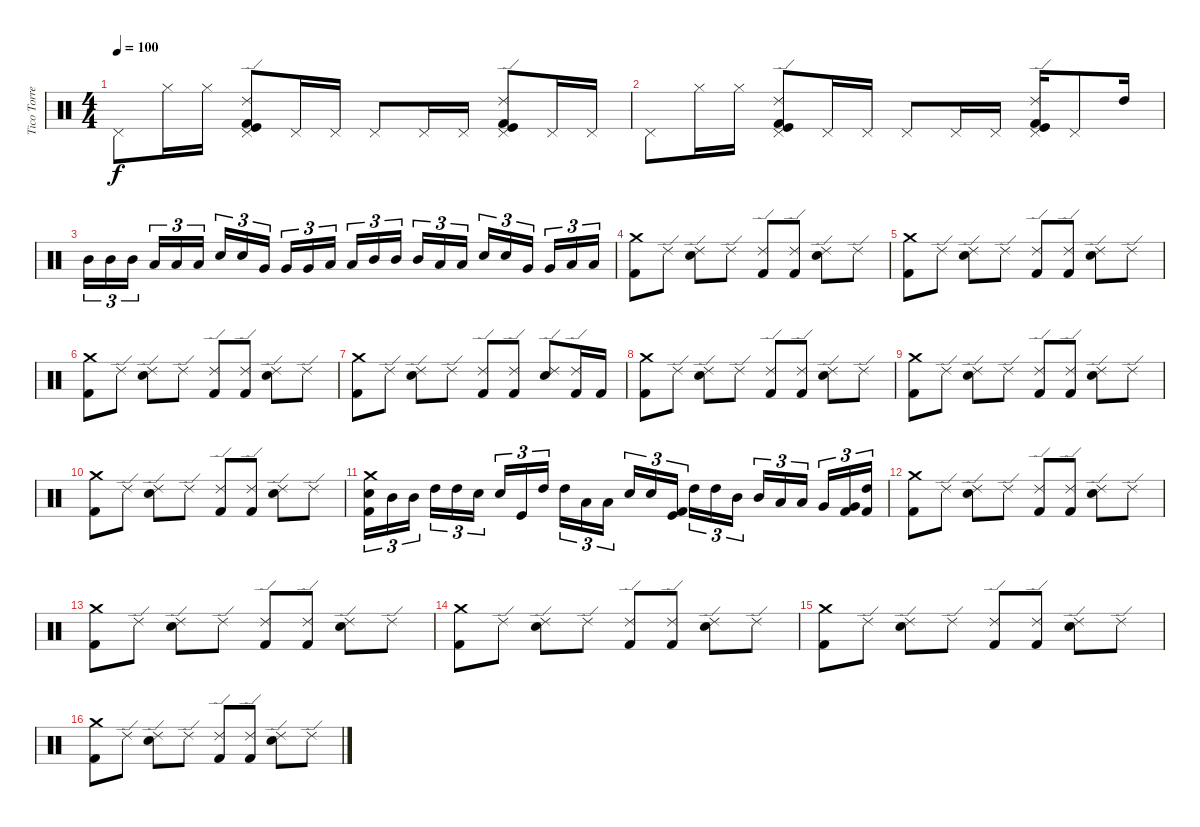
\track ("Tico Torres" "Tico Torre") {instrument percussion}
\staff {score}
\articulation defaults
\ts (4 4)
\tempo 100
\clef neutral
\ks c "Pedal Hi-Hat (hit)".8{dy f} "Hi-Hat (closed)".16 "Hi-Hat (closed)".16
("Ride (edge) 2" "Kick (hit)" "Pedal Hi-Hat (hit)" "Kick (hit) 2").8 "Pedal Hi-Hat (hit)".16 "Pedal Hi-Hat (hit)".16 "Pedal Hi-Hat (hit)".8 "Pedal Hi-Hat (hit)".16 "Pedal Hi-Hat (hit)".16 ("Ride (edge) 2" "Kick (hit)" "Pedal Hi-Hat (hit)" "Kick (hit) 2").8 "Pedal Hi-Hat (hit)".16 "Pedal Hi-Hat (hit)".16 |
"Pedal Hi-Hat (hit)".8 "Hi-Hat (closed)".16 "Hi-Hat (closed)".16 ("Ride (edge) 2" "Kick (hit)" "Pedal Hi-Hat (hit)" "Kick (hit) 2").8 "Pedal Hi-Hat (hit)".16 "Pedal Hi-Hat (hit)".16 "Pedal Hi-Hat (hit)".8 "Pedal Hi-Hat (hit)".16 "Pedal Hi-Hat (hit)".16 ("Ride (edge) 2" "Kick (hit)" "Pedal Hi-Hat (hit)" "Kick (hit) 2").16 "Pedal Hi-Hat (hit)".8 "High Tom (hit)".16 |
"Mid Tom (hit)".16{tu (3 2)} "Mid Tom (hit)".16{tu (3 2)} "Mid Tom (hit)".16{tu (3 2)} "Low Tom (hit)".16{tu (3 2)} "Low Tom (hit)".16{tu (3 2)} "Low Tom (hit)".16{tu (3 2)} "Electric Snare (hit)".16{tu (3 2)} "Electric Snare (hit)".16{tu (3 2)} "Very Low Tom (hit)".16{tu (3 2)} "Very Low Tom (hit)".16{tu (3 2)} "Very Low Tom (hit)".16{tu (3 2)} "Low Tom (hit)".16{tu (3 2)} "Low Tom (hit)".16{tu (3 2)} "Mid Tom (hit)".16{tu (3 2)} "Mid Tom (hit)".16{tu (3 2)} "Mid Tom (hit)".16{tu (3 2)} "Low Tom (hit)".16{tu (3 2)} "Low Tom (hit)".16{tu (3 2)} "Electric Snare (hit)".16{tu (3 2)} "Electric Snare (hit)".16{tu (3 2)} "Very Low Tom (hit)".16{tu (3 2)} "Very Low Tom (hit)".16{tu (3 2)} "Low Tom (hit)".16{tu (3 2)} "Low Tom (hit)".16{tu (3 2)} |
("Crash medium (hit)" "Kick (hit) 2").8 "Ride (edge) 2".8 ("Ride (edge) 2" "Snare (hit) 2").8 "Ride (edge) 2".8 ("Ride (edge) 2" "Kick (hit) 2").8 ("Ride (edge) 2" "Kick (hit) 2").8 ("Ride (edge) 2" "Snare (hit) 2").8 "Ride (edge) 2".8 |
("Crash medium (hit)" "Kick (hit) 2").8 "Ride (edge) 2".8 ("Ride (edge) 2" "Snare (hit) 2").8 "Ride (edge) 2".8 ("Ride (edge) 2" "Kick (hit) 2").8 ("Ride (edge) 2" "Kick (hit) 2").8 ("Ride (edge) 2" "Snare (hit) 2").8 "Ride (edge) 2".8 |
("Crash medium (hit)" "Kick (hit) 2").8 "Ride (edge) 2".8 ("Ride (edge) 2" "Snare (hit) 2").8 "Ride (edge) 2".8 ("Ride (edge) 2" "Kick (hit) 2").8 ("Ride (edge) 2" "Kick (hit) 2").8 ("Ride (edge) 2" "Snare (hit) 2").8 "Ride (edge) 2".8 |
("Crash medium (hit)" "Kick (hit) 2").8 "Ride (edge) 2".8 ("Ride (edge) 2" "Snare (hit) 2").8 "Ride (edge) 2".8 ("Ride (edge) 2" "Kick (hit) 2").8 ("Ride (edge) 2" "Kick (hit) 2").8 ("Ride (edge) 2" "Snare (hit) 2").8 ("Ride (edge) 2" "Kick (hit) 2").16 "Kick (hit) 2".16 |
("Crash medium (hit)" "Kick (hit) 2").8 "Ride (edge) 2".8 ("Ride (edge) 2" "Snare (hit) 2").8 "Ride (edge) 2".8 ("Ride (edge) 2" "Kick (hit) 2").8 ("Ride (edge) 2" "Kick (hit) 2").8 ("Ride (edge) 2" "Snare (hit) 2").8 "Ride (edge) 2".8 |
("Crash medium (hit)" "Kick (hit) 2").8 "Ride (edge) 2".8 ("Ride (edge) 2" "Snare (hit) 2").8 "Ride (edge) 2".8 ("Ride (edge) 2" "Kick (hit) 2").8 ("Ride (edge) 2" "Kick (hit) 2").8 ("Ride (edge) 2" "Snare (hit) 2").8 "Ride (edge) 2".8 |
("Crash medium (hit)" "Kick (hit) 2").8 "Ride (edge) 2".8 ("Ride (edge) 2" "Snare (hit) 2").8 "Ride (edge) 2".8 ("Ride (edge) 2" "Kick (hit) 2").8 ("Ride (edge) 2" "Kick (hit) 2").8 ("Ride (edge) 2" "Snare (hit) 2").8 "Ride (edge) 2".8 |
("Crash medium (hit)" "Kick (hit) 2" "Electric Snare (hit)").16{tu (3 2)} "Mid Tom (hit)".16{tu (3 2)} "Mid Tom (hit)".16{tu (3 2)} "High Tom (hit)".16{tu (3 2)} "High Tom (hit)".16{tu (3 2)} "Electric Snare (hit)".16{tu (3 2)} "Electric Snare (hit)".16{tu (3 2)} "Kick (hit)".16{tu (3 2)} "High Tom (hit)".16{tu (3 2)} "High Tom (hit)".16{tu (3 2)} "Low Tom (hit)".16{tu (3 2)} "Low Tom (hit)".16{tu (3 2)} "Electric Snare (hit)".16{tu (3 2)} "Electric Snare (hit)".16{tu (3 2)} ("Kick (hit)" "Kick (hit) 2").16{tu (3 2)} "High Tom (hit)".16{tu (3 2)} "High Tom (hit)".16{tu (3 2)} "Mid Tom (hit)".16{tu (3 2)} "Mid Tom (hit)".16{tu (3 2)} "Low Tom (hit)".16{tu (3 2)} "Low Tom (hit)".16{tu (3 2)} "Very Low Tom (hit)".16{tu (3 2)} ("Very Low Tom (hit)" "Kick (hit) 2").16{tu (3 2)} ("High Tom (hit)" "Kick (hit) 2").16{tu (3 2)} |
("Crash medium (hit)" "Kick (hit) 2").8 "Ride (edge) 2".8 ("Ride (edge) 2" "Snare (hit) 2").8 "Ride (edge) 2".8 ("Ride (edge) 2" "Kick (hit) 2").8 ("Ride (edge) 2" "Kick (hit) 2").8 ("Ride (edge) 2" "Snare (hit) 2").8 "Ride (edge) 2".8 |
("Crash medium (hit)" "Kick (hit) 2").8 "Ride (edge) 2".8 ("Ride (edge) 2" "Snare (hit) 2").8 "Ride (edge) 2".8 ("Ride (edge) 2" "Kick (hit) 2").8 ("Ride (edge) 2" "Kick (hit) 2").8 ("Ride (edge) 2" "Snare (hit) 2").8 "Ride (edge) 2".8 |
("Crash medium (hit)" "Kick (hit) 2").8 "Ride (edge) 2".8 ("Ride (edge) 2" "Snare (hit) 2").8 "Ride (edge) 2".8 ("Ride (edge) 2" "Kick (hit) 2").8 ("Ride (edge) 2" "Kick (hit) 2").8 ("Ride (edge) 2" "Snare (hit) 2").8 "Ride (edge) 2".8 |
("Crash medium (hit)" "Kick (hit) 2").8 "Ride (edge) 2".8 ("Ride (edge) 2" "Snare (hit) 2").8 "Ride (edge) 2".8 ("Ride (edge) 2" "Kick (hit) 2").8 ("Ride (edge) 2" "Kick (hit) 2").8 ("Ride (edge) 2" "Snare (hit) 2").8 "Ride (edge) 2".8 |
("Crash medium (hit)" "Kick (hit) 2").8 "Ride (edge) 2".8 ("Ride (edge) 2" "Snare (hit) 2").8 "Ride (edge) 2".8 ("Ride (edge) 2" "Kick (hit) 2").8 ("Ride (edge) 2" "Kick (hit) 2").8 ("Ride (edge) 2" "Snare (hit) 2").8 "Ride (edge) 2".8
